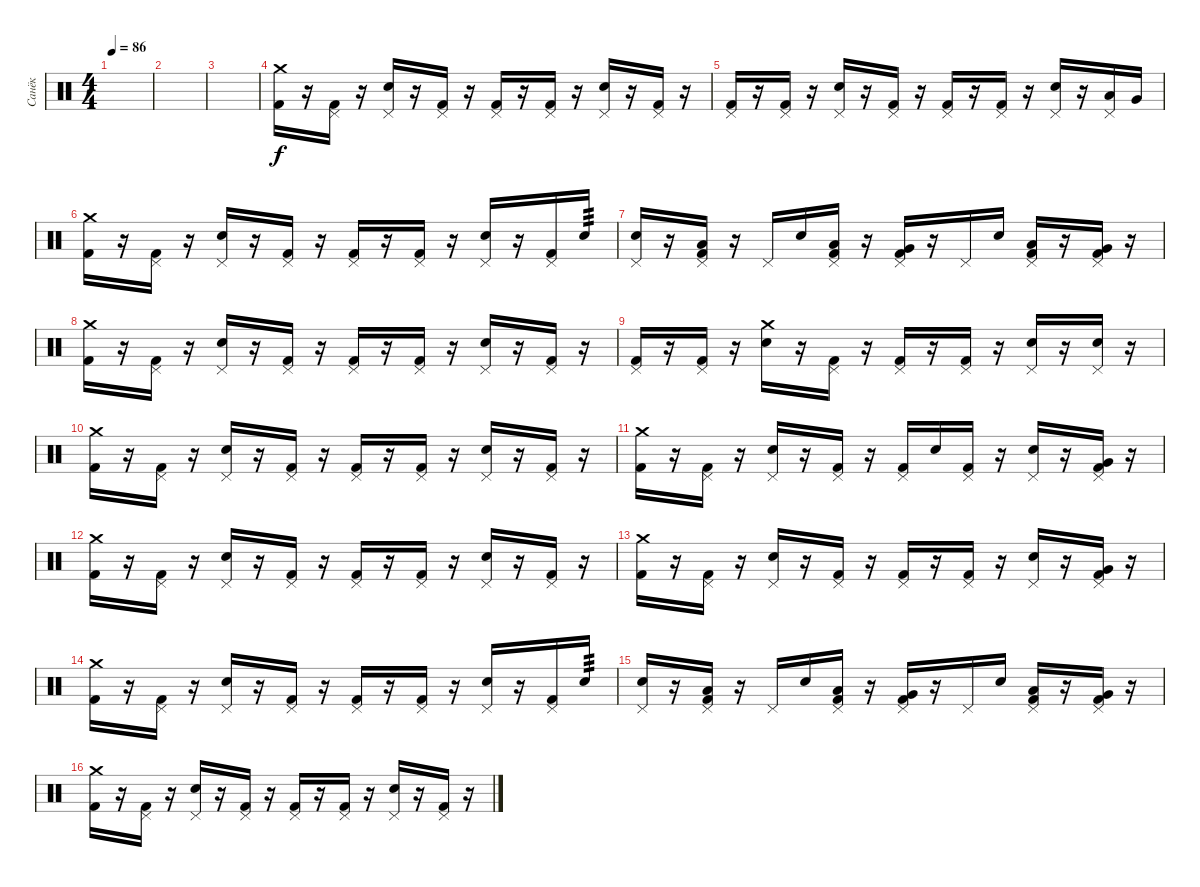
\track ("Санёк" "Санёк") {instrument percussion}
\staff {score}
\articulation defaults
\ts (4 4)
\tempo 86
\clef neutral
\ks c
|
|
|
("Crash medium (hit)" "Kick (hit) 2").16 r.16 ("Pedal Hi-Hat (hit)" "Kick (hit) 2").16 r.16 ("Pedal Hi-Hat (hit)" "Electric Snare (hit)").16 r.16 ("Pedal Hi-Hat (hit)" "Kick (hit) 2").16 r.16 ("Pedal Hi-Hat (hit)" "Kick (hit) 2").16 r.16 ("Pedal Hi-Hat (hit)" "Kick (hit) 2").16 r.16 ("Pedal Hi-Hat (hit)" "Electric Snare (hit)").16 r.16 ("Pedal Hi-Hat (hit)" "Kick (hit) 2").16 r.16 |
("Pedal Hi-Hat (hit)" "Kick (hit) 2").16 r.16 ("Pedal Hi-Hat (hit)" "Kick (hit) 2").16 r.16 ("Pedal Hi-Hat (hit)" "Electric Snare (hit)").16 r.16 ("Pedal Hi-Hat (hit)" "Kick (hit) 2").16 r.16 ("Pedal Hi-Hat (hit)" "Kick (hit) 2").16 r.16 ("Pedal Hi-Hat (hit)" "Kick (hit) 2").16 r.16 ("Pedal Hi-Hat (hit)" "Electric Snare (hit)").16 r.16 ("Pedal Hi-Hat (hit)" "Low Tom (hit)").16 "Very Low Tom (hit)".16 |
("Crash medium (hit)" "Kick (hit) 2").16 r.16 ("Pedal Hi-Hat (hit)" "Kick (hit) 2").16 r.16 ("Pedal Hi-Hat (hit)" "Electric Snare (hit)").16 r.16 ("Pedal Hi-Hat (hit)" "Kick (hit) 2").16 r.16 ("Pedal Hi-Hat (hit)" "Kick (hit) 2").16 r.16 ("Pedal Hi-Hat (hit)" "Kick (hit) 2").16 r.16 ("Pedal Hi-Hat (hit)" "Electric Snare (hit)").16 r.16 ("Pedal Hi-Hat (hit)" "Kick (hit) 2").16 "Electric Snare (hit)".16{tp 3} |
("Pedal Hi-Hat (hit)" "Electric Snare (hit)").16 r.16 ("Pedal Hi-Hat (hit)" "Low Tom (hit)" "Kick (hit) 2").16 r.16 "Pedal Hi-Hat (hit)".16 "Electric Snare (hit)".16 ("Pedal Hi-Hat (hit)" "Low Tom (hit)" "Kick (hit) 2").16 r.16 ("Pedal Hi-Hat (hit)" "Very Low Tom (hit)" "Kick (hit) 2").16 r.16 "Pedal Hi-Hat (hit)".16 "Electric Snare (hit)".16 ("Pedal Hi-Hat (hit)" "Low Tom (hit)" "Kick (hit) 2").16 r.16 ("Pedal Hi-Hat (hit)" "Very Low Tom (hit)" "Kick (hit) 2").16 r.16 |
("Crash medium (hit)" "Kick (hit) 2").16 r.16 ("Pedal Hi-Hat (hit)" "Kick (hit) 2").16 r.16 ("Pedal Hi-Hat (hit)" "Electric Snare (hit)").16 r.16 ("Pedal Hi-Hat (hit)" "Kick (hit) 2").16 r.16 ("Pedal Hi-Hat (hit)" "Kick (hit) 2").16 r.16 ("Pedal Hi-Hat (hit)" "Kick (hit) 2").16 r.16 ("Pedal Hi-Hat (hit)" "Electric Snare (hit)").16 r.16 ("Pedal Hi-Hat (hit)" "Kick (hit) 2").16 r.16 |
("Pedal Hi-Hat (hit)" "Kick (hit) 2").16 r.16 ("Pedal Hi-Hat (hit)" "Kick (hit) 2").16 r.16 ("Crash medium (hit)" "Electric Snare (hit)").16 r.16 ("Pedal Hi-Hat (hit)" "Kick (hit) 2").16 r.16 ("Pedal Hi-Hat (hit)" "Kick (hit) 2").16 r.16 ("Pedal Hi-Hat (hit)" "Kick (hit) 2").16 r.16 ("Pedal Hi-Hat (hit)" "Electric Snare (hit)").16 r.16 ("Pedal Hi-Hat (hit)" "Electric Snare (hit)").16 r.16 |
("Crash medium (hit)" "Kick (hit) 2").16 r.16 ("Pedal Hi-Hat (hit)" "Kick (hit) 2").16 r.16 ("Pedal Hi-Hat (hit)" "Electric Snare (hit)").16 r.16 ("Pedal Hi-Hat (hit)" "Kick (hit) 2").16 r.16 ("Pedal Hi-Hat (hit)" "Kick (hit) 2").16 r.16 ("Pedal Hi-Hat (hit)" "Kick (hit) 2").16 r.16 ("Pedal Hi-Hat (hit)" "Electric Snare (hit)").16 r.16 ("Pedal Hi-Hat (hit)" "Kick (hit) 2").16 r.16 |
("Crash medium (hit)" "Kick (hit) 2").16 r.16 ("Pedal Hi-Hat (hit)" "Kick (hit) 2").16 r.16 ("Pedal Hi-Hat (hit)" "Electric Snare (hit)").16 r.16 ("Pedal Hi-Hat (hit)" "Kick (hit) 2").16 r.16 ("Pedal Hi-Hat (hit)" "Kick (hit) 2").16 "Electric Snare (hit)".16 ("Pedal Hi-Hat (hit)" "Kick (hit) 2").16 r.16 ("Pedal Hi-Hat (hit)" "Electric Snare (hit)").16 r.16 ("Pedal Hi-Hat (hit)" "Very Low Tom (hit)" "Kick (hit) 2").16 r.16 |
("Crash medium (hit)" "Kick (hit) 2").16 r.16 ("Pedal Hi-Hat (hit)" "Kick (hit) 2").16 r.16 ("Pedal Hi-Hat (hit)" "Electric Snare (hit)").16 r.16 ("Pedal Hi-Hat (hit)" "Kick (hit) 2").16 r.16 ("Pedal Hi-Hat (hit)" "Kick (hit) 2").16 r.16 ("Pedal Hi-Hat (hit)" "Kick (hit) 2").16 r.16 ("Pedal Hi-Hat (hit)" "Electric Snare (hit)").16 r.16 ("Pedal Hi-Hat (hit)" "Kick (hit) 2").16 r.16 |
("Crash medium (hit)" "Kick (hit) 2").16 r.16 ("Pedal Hi-Hat (hit)" "Kick (hit) 2").16 r.16 ("Pedal Hi-Hat (hit)" "Electric Snare (hit)").16 r.16 ("Pedal Hi-Hat (hit)" "Kick (hit) 2").16 r.16 ("Pedal Hi-Hat (hit)" "Kick (hit) 2").16 r.16 ("Pedal Hi-Hat (hit)" "Kick (hit) 2").16 r.16 ("Pedal Hi-Hat (hit)" "Electric Snare (hit)").16 r.16 ("Pedal Hi-Hat (hit)" "Very Low Tom (hit)" "Kick (hit) 2").16 r.16 |
("Crash medium (hit)" "Kick (hit) 2").16 r.16 ("Pedal Hi-Hat (hit)" "Kick (hit) 2").16 r.16 ("Pedal Hi-Hat (hit)" "Electric Snare (hit)").16 r.16 ("Pedal Hi-Hat (hit)" "Kick (hit) 2").16 r.16 ("Pedal Hi-Hat (hit)" "Kick (hit) 2").16 r.16 ("Pedal Hi-Hat (hit)" "Kick (hit) 2").16 r.16 ("Pedal Hi-Hat (hit)" "Electric Snare (hit)").16 r.16 ("Pedal Hi-Hat (hit)" "Kick (hit) 2").16 "Electric Snare (hit)".16{tp 3} |
("Pedal Hi-Hat (hit)" "Electric Snare (hit)").16 r.16 ("Pedal Hi-Hat (hit)" "Low Tom (hit)" "Kick (hit) 2").16 r.16 "Pedal Hi-Hat (hit)".16 "Electric Snare (hit)".16 ("Pedal Hi-Hat (hit)" "Low Tom (hit)" "Kick (hit) 2").16 r.16 ("Pedal Hi-Hat (hit)" "Very Low Tom (hit)" "Kick (hit) 2").16 r.16 "Pedal Hi-Hat (hit)".16 "Electric Snare (hit)".16 ("Pedal Hi-Hat (hit)" "Low Tom (hit)" "Kick (hit) 2").16 r.16 ("Pedal Hi-Hat (hit)" "Very Low Tom (hit)" "Kick (hit) 2").16 r.16 |
("Crash medium (hit)" "Kick (hit) 2").16 r.16 ("Pedal Hi-Hat (hit)" "Kick (hit) 2").16 r.16 ("Pedal Hi-Hat (hit)" "Electric Snare (hit)").16 r.16 ("Pedal Hi-Hat (hit)" "Kick (hit) 2").16 r.16 ("Pedal Hi-Hat (hit)" "Kick (hit) 2").16 r.16 ("Pedal Hi-Hat (hit)" "Kick (hit) 2").16 r.16 ("Pedal Hi-Hat (hit)" "Electric Snare (hit)").16 r.16 ("Pedal Hi-Hat (hit)" "Kick (hit) 2").16 r.16
